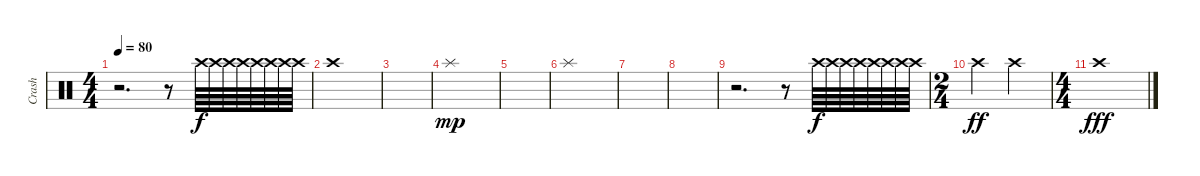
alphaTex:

\track ("Crash" "Crash") {instrument percussion}
\staff {score}
\articulation defaults
\ts (4 4)
\tempo 80
\clef neutral
\ks c
r.2{d dy f} r.8 "Crash high (hit)".64{volume 3} "Crash high (hit)".64{volume 12} "Crash high (hit)".64 "Crash high (hit)".64 "Crash high (hit)".64 "Crash high (hit)".64 "Crash high (hit)".64 "Crash high (hit)".64 |
"Crash high (hit)".1{volume 13} |
|
"Splash (hit)".1{dy mp} |
|
"Splash (hit)".1 |
|
|
r.2{d} r.8 "Crash high (hit)".64{dy f volume 3} "Crash high (hit)".64{volume 12} "Crash high (hit)".64 "Crash high (hit)".64 "Crash high (hit)".64 "Crash high (hit)".64 "Crash high (hit)".64 "Crash high (hit)".64 |
\ts (2 4)
"Crash high (hit)".4{dy ff} "Crash high (hit)".4 |
\ts (4 4)
"Crash high (hit)".1{dy fff}
